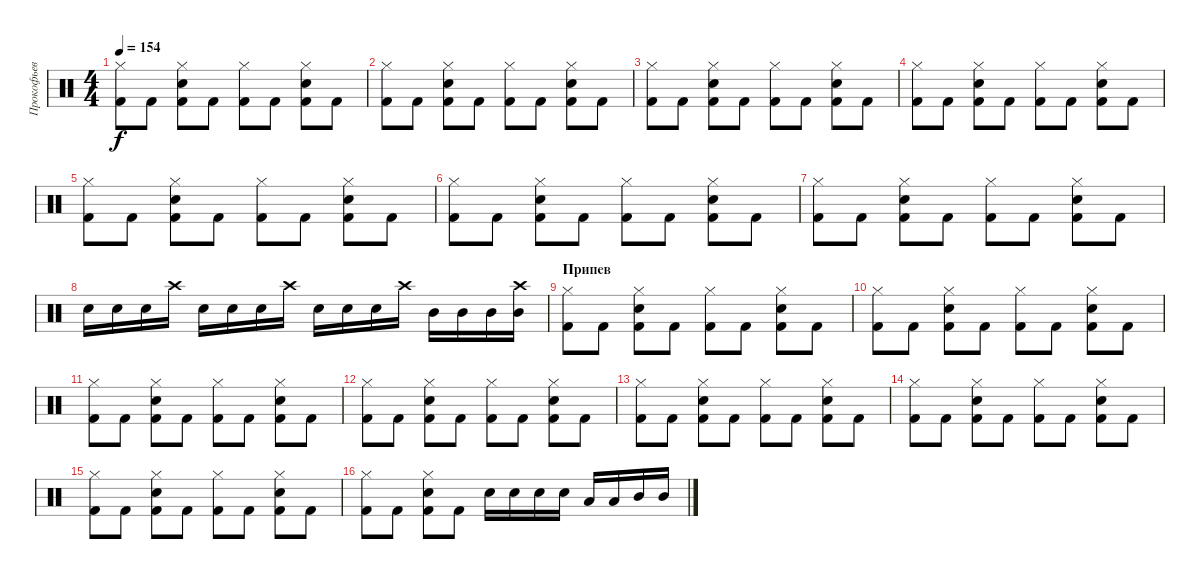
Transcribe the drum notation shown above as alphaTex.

\track ("Прокофьев" "Прокофьев") {instrument percussion}
\staff {score}
\articulation defaults
\ts (4 4)
\tempo 154
\clef neutral
\ks c
("Hi-Hat (closed)" "Kick (hit) 2").8{dy f} "Kick (hit) 2".8 ("Hi-Hat (closed)" "Snare (hit) 2" "Kick (hit) 2").8 "Kick (hit) 2".8 ("Hi-Hat (closed)" "Kick (hit) 2").8 "Kick (hit) 2".8 ("Hi-Hat (closed)" "Snare (hit) 2" "Kick (hit) 2").8 "Kick (hit) 2".8 |
("Hi-Hat (closed)" "Kick (hit) 2").8 "Kick (hit) 2".8 ("Hi-Hat (closed)" "Snare (hit) 2" "Kick (hit) 2").8 "Kick (hit) 2".8 ("Hi-Hat (closed)" "Kick (hit) 2").8 "Kick (hit) 2".8 ("Hi-Hat (closed)" "Snare (hit) 2" "Kick (hit) 2").8 "Kick (hit) 2".8 |
("Hi-Hat (closed)" "Kick (hit) 2").8 "Kick (hit) 2".8 ("Hi-Hat (closed)" "Snare (hit) 2" "Kick (hit) 2").8 "Kick (hit) 2".8 ("Hi-Hat (closed)" "Kick (hit) 2").8 "Kick (hit) 2".8 ("Hi-Hat (closed)" "Snare (hit) 2" "Kick (hit) 2").8 "Kick (hit) 2".8 |
("Hi-Hat (closed)" "Kick (hit) 2").8 "Kick (hit) 2".8 ("Hi-Hat (closed)" "Snare (hit) 2" "Kick (hit) 2").8 "Kick (hit) 2".8 ("Hi-Hat (closed)" "Kick (hit) 2").8 "Kick (hit) 2".8 ("Hi-Hat (closed)" "Snare (hit) 2" "Kick (hit) 2").8 "Kick (hit) 2".8 |
("Hi-Hat (closed)" "Kick (hit) 2").8 "Kick (hit) 2".8 ("Hi-Hat (closed)" "Snare (hit) 2" "Kick (hit) 2").8 "Kick (hit) 2".8 ("Hi-Hat (closed)" "Kick (hit) 2").8 "Kick (hit) 2".8 ("Hi-Hat (closed)" "Snare (hit) 2" "Kick (hit) 2").8 "Kick (hit) 2".8 |
("Hi-Hat (closed)" "Kick (hit) 2").8 "Kick (hit) 2".8 ("Hi-Hat (closed)" "Snare (hit) 2" "Kick (hit) 2").8 "Kick (hit) 2".8 ("Hi-Hat (closed)" "Kick (hit) 2").8 "Kick (hit) 2".8 ("Hi-Hat (closed)" "Snare (hit) 2" "Kick (hit) 2").8 "Kick (hit) 2".8 |
("Hi-Hat (closed)" "Kick (hit) 2").8 "Kick (hit) 2".8 ("Hi-Hat (closed)" "Snare (hit) 2" "Kick (hit) 2").8 "Kick (hit) 2".8 ("Hi-Hat (closed)" "Kick (hit) 2").8 "Kick (hit) 2".8 ("Hi-Hat (closed)" "Snare (hit) 2" "Kick (hit) 2").8 "Kick (hit) 2".8 |
"Electric Snare (hit)".16 "Electric Snare (hit)".16 "Electric Snare (hit)".16 "Crash high (hit)".16 "Electric Snare (hit)".16 "Electric Snare (hit)".16 "Electric Snare (hit)".16 "Crash high (hit)".16 "Electric Snare (hit)".16 "Electric Snare (hit)".16 "Electric Snare (hit)".16 "Crash high (hit)".16 "Mid Tom (hit)".16 "Mid Tom (hit)".16 "Mid Tom (hit)".16 ("Crash high (hit)" "Mid Tom (hit)").16 |
\section ("" "Припев")
("Hi-Hat (closed)" "Kick (hit) 2").8 "Kick (hit) 2".8 ("Hi-Hat (closed)" "Snare (hit) 2" "Kick (hit) 2").8 "Kick (hit) 2".8 ("Hi-Hat (closed)" "Kick (hit) 2").8 "Kick (hit) 2".8 ("Hi-Hat (closed)" "Snare (hit) 2" "Kick (hit) 2").8 "Kick (hit) 2".8 |
("Hi-Hat (closed)" "Kick (hit) 2").8 "Kick (hit) 2".8 ("Hi-Hat (closed)" "Snare (hit) 2" "Kick (hit) 2").8 "Kick (hit) 2".8 ("Hi-Hat (closed)" "Kick (hit) 2").8 "Kick (hit) 2".8 ("Hi-Hat (closed)" "Snare (hit) 2" "Kick (hit) 2").8 "Kick (hit) 2".8 |
("Hi-Hat (closed)" "Kick (hit) 2").8 "Kick (hit) 2".8 ("Hi-Hat (closed)" "Snare (hit) 2" "Kick (hit) 2").8 "Kick (hit) 2".8 ("Hi-Hat (closed)" "Kick (hit) 2").8 "Kick (hit) 2".8 ("Hi-Hat (closed)" "Snare (hit) 2" "Kick (hit) 2").8 "Kick (hit) 2".8 |
("Hi-Hat (closed)" "Kick (hit) 2").8 "Kick (hit) 2".8 ("Hi-Hat (closed)" "Snare (hit) 2" "Kick (hit) 2").8 "Kick (hit) 2".8 ("Hi-Hat (closed)" "Kick (hit) 2").8 "Kick (hit) 2".8 ("Hi-Hat (closed)" "Snare (hit) 2" "Kick (hit) 2").8 "Kick (hit) 2".8 |
("Hi-Hat (closed)" "Kick (hit) 2").8 "Kick (hit) 2".8 ("Hi-Hat (closed)" "Snare (hit) 2" "Kick (hit) 2").8 "Kick (hit) 2".8 ("Hi-Hat (closed)" "Kick (hit) 2").8 "Kick (hit) 2".8 ("Hi-Hat (closed)" "Snare (hit) 2" "Kick (hit) 2").8 "Kick (hit) 2".8 |
("Hi-Hat (closed)" "Kick (hit) 2").8 "Kick (hit) 2".8 ("Hi-Hat (closed)" "Snare (hit) 2" "Kick (hit) 2").8 "Kick (hit) 2".8 ("Hi-Hat (closed)" "Kick (hit) 2").8 "Kick (hit) 2".8 ("Hi-Hat (closed)" "Snare (hit) 2" "Kick (hit) 2").8 "Kick (hit) 2".8 |
("Hi-Hat (closed)" "Kick (hit) 2").8 "Kick (hit) 2".8 ("Hi-Hat (closed)" "Snare (hit) 2" "Kick (hit) 2").8 "Kick (hit) 2".8 ("Hi-Hat (closed)" "Kick (hit) 2").8 "Kick (hit) 2".8 ("Hi-Hat (closed)" "Snare (hit) 2" "Kick (hit) 2").8 "Kick (hit) 2".8 |
("Hi-Hat (closed)" "Kick (hit) 2").8 "Kick (hit) 2".8 ("Hi-Hat (closed)" "Snare (hit) 2" "Kick (hit) 2").8 "Kick (hit) 2".8 "Snare (hit) 2".16 "Snare (hit) 2".16 "Snare (hit) 2".16 "Snare (hit) 2".16 "Low Tom (hit)".16 "Low Tom (hit)".16 "Mid Tom (hit)".16 "Mid Tom (hit)".16
